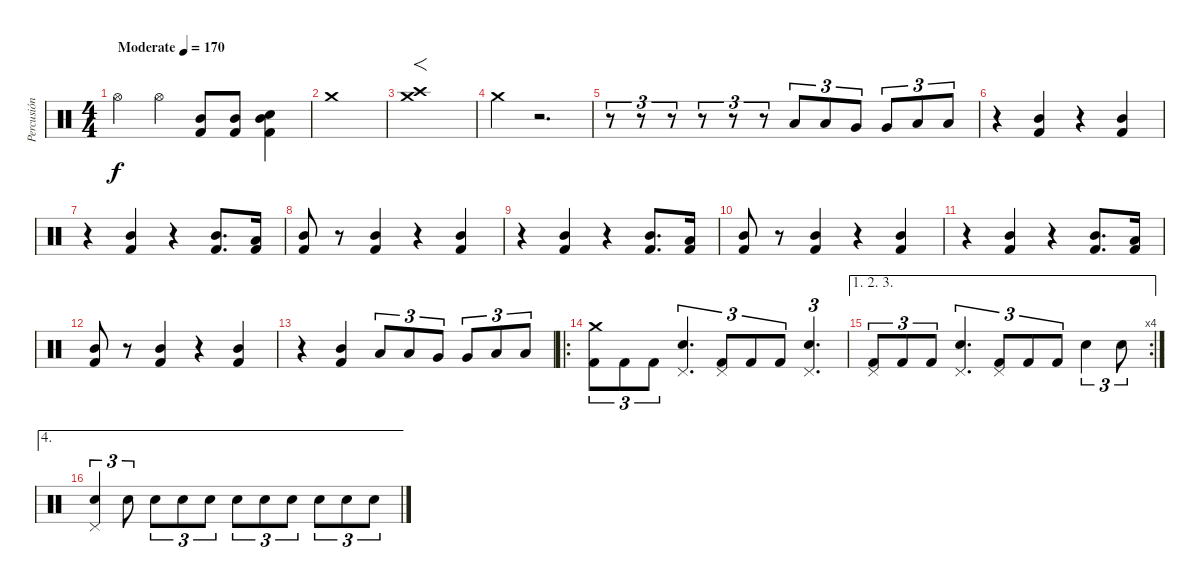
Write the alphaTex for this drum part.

\track ("Percusión" "Percusión") {instrument percussion}
\staff {score}
\articulation defaults
\ts (4 4)
\tempo (170 "Moderate")
\clef neutral
\ks c "Hi-Hat (open)".4{dy f} "Hi-Hat (open)".4
("Mid Tom (hit)" "Kick (hit) 2").8 ("Mid Tom (hit)" "Kick (hit) 2").8 ("Electric Snare (hit)" "Kick (hit) 2" "Mid Tom (hit)").4 |
"Crash medium (hit)".1 |
("Crash high (hit)" "Crash medium (hit)").1{f} |
"Crash medium (hit)".4 r.2{d} |
r.8{tu (3 2)} r.8{tu (3 2)} r.8{tu (3 2)} r.8{tu (3 2)} r.8{tu (3 2)} r.8{tu (3 2)} "Low Floor Tom (hit)".8{tu (3 2)} "Low Floor Tom (hit)".8{tu (3 2)} "Very Low Tom (hit)".8{tu (3 2)} "Very Low Tom (hit)".8{tu (3 2)} "Low Tom (hit)".8{tu (3 2)} "Low Tom (hit)".8{tu (3 2)} |
r.4 ("Mid Tom (hit)" "Kick (hit) 2").4 r.4 ("Mid Tom (hit)" "Kick (hit) 2").4 |
r.4 ("Mid Tom (hit)" "Kick (hit) 2").4 r.4 ("Kick (hit) 2" "Mid Tom (hit)").8{d} ("Kick (hit) 2" "Low Tom (hit)").16 |
("Mid Tom (hit)" "Kick (hit) 2").8 r.8 ("Mid Tom (hit)" "Kick (hit) 2").4 r.4 ("Mid Tom (hit)" "Kick (hit) 2").4 |
r.4 ("Mid Tom (hit)" "Kick (hit) 2").4 r.4 ("Kick (hit) 2" "Mid Tom (hit)").8{d} ("Kick (hit) 2" "Low Tom (hit)").16 |
("Mid Tom (hit)" "Kick (hit) 2").8 r.8 ("Mid Tom (hit)" "Kick (hit) 2").4 r.4 ("Mid Tom (hit)" "Kick (hit) 2").4 |
r.4 ("Mid Tom (hit)" "Kick (hit) 2").4 r.4 ("Kick (hit) 2" "Mid Tom (hit)").8{d} ("Kick (hit) 2" "Low Tom (hit)").16 |
("Mid Tom (hit)" "Kick (hit) 2").8 r.8 ("Mid Tom (hit)" "Kick (hit) 2").4 r.4 ("Mid Tom (hit)" "Kick (hit) 2").4 |
r.4 ("Mid Tom (hit)" "Kick (hit) 2").4 "Low Floor Tom (hit)".8{tu (3 2)} "Low Floor Tom (hit)".8{tu (3 2)} "Very Low Tom (hit)".8{tu (3 2)} "Very Low Tom (hit)".8{tu (3 2)} "Low Tom (hit)".8{tu (3 2)} "Low Tom (hit)".8{tu (3 2)} |
\ro
("Kick (hit) 2" "Crash medium (hit)").8{tu (3 2)} "Kick (hit) 2".8{tu (3 2)} "Kick (hit) 2".8{tu (3 2)} ("Electric Snare (hit)" "Pedal Hi-Hat (hit)").4{d tu (3 2)} ("Kick (hit) 2" "Pedal Hi-Hat (hit)").8{tu (3 2)} "Kick (hit) 2".8{tu (3 2)} "Kick (hit) 2".8{tu (3 2)} ("Electric Snare (hit)" "Pedal Hi-Hat (hit)").4{d tu (3 2)} |
\ae (1 2 3)
\rc 4
("Kick (hit) 2" "Pedal Hi-Hat (hit)").8{tu (3 2)} "Kick (hit) 2".8{tu (3 2)} "Kick (hit) 2".8{tu (3 2)} ("Electric Snare (hit)" "Pedal Hi-Hat (hit)").4{d tu (3 2)} ("Kick (hit) 2" "Pedal Hi-Hat (hit)").8{tu (3 2)} "Kick (hit) 2".8{tu (3 2)} "Kick (hit) 2".8{tu (3 2)} "Electric Snare (hit)".4{tu (3 2)} "Electric Snare (hit)".8{tu (3 2)} |
\ae 4
("Electric Snare (hit)" "Pedal Hi-Hat (hit)").4{tu (3 2)} "Electric Snare (hit)".8{tu (3 2)} "Electric Snare (hit)".8{tu (3 2)} "Electric Snare (hit)".8{tu (3 2)} "Electric Snare (hit)".8{tu (3 2)} "Electric Snare (hit)".8{tu (3 2)} "Electric Snare (hit)".8{tu (3 2)} "Electric Snare (hit)".8{tu (3 2)} "Electric Snare (hit)".8{tu (3 2)} "Electric Snare (hit)".8{tu (3 2)} "Electric Snare (hit)".8{tu (3 2)}
